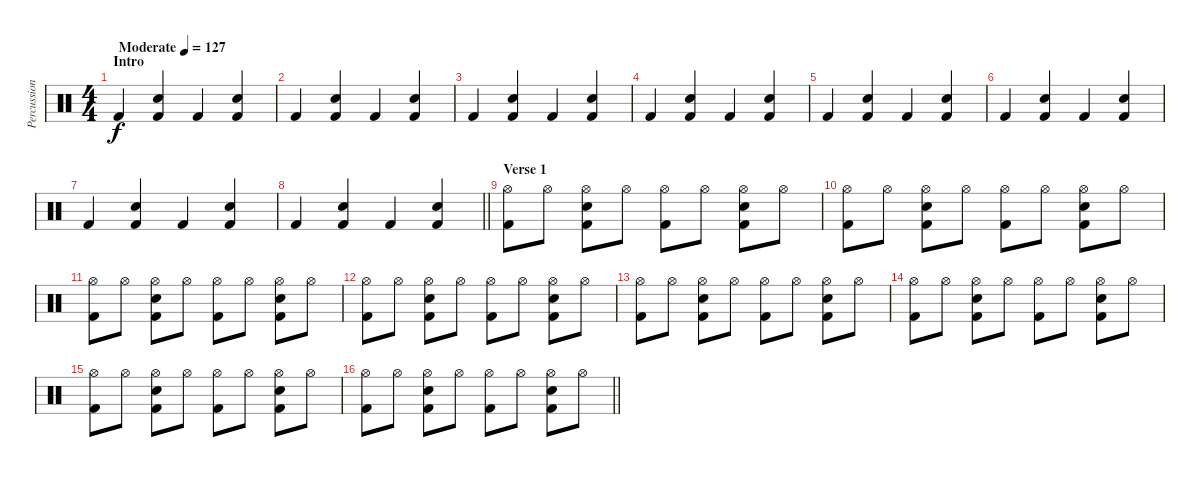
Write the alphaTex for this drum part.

\track ("Percussion" "Percussion") {instrument percussion}
\staff {score}
\articulation defaults
\ts (4 4)
\section ("" "Intro")
\tempo (127 "Moderate")
\clef neutral
\ks c "Kick (hit) 2".4{dy f volume 3}
("Electric Snare (hit)" "Kick (hit) 2").4 "Kick (hit) 2".4 ("Electric Snare (hit)" "Kick (hit) 2").4 |
"Kick (hit) 2".4 ("Electric Snare (hit)" "Kick (hit) 2").4 "Kick (hit) 2".4 ("Electric Snare (hit)" "Kick (hit) 2").4 |
"Kick (hit) 2".4 ("Electric Snare (hit)" "Kick (hit) 2").4 "Kick (hit) 2".4 ("Electric Snare (hit)" "Kick (hit) 2").4 |
"Kick (hit) 2".4 ("Electric Snare (hit)" "Kick (hit) 2").4 "Kick (hit) 2".4 ("Electric Snare (hit)" "Kick (hit) 2").4 |
"Kick (hit) 2".4 ("Electric Snare (hit)" "Kick (hit) 2").4 "Kick (hit) 2".4 ("Electric Snare (hit)" "Kick (hit) 2").4 |
"Kick (hit) 2".4 ("Electric Snare (hit)" "Kick (hit) 2").4 "Kick (hit) 2".4 ("Electric Snare (hit)" "Kick (hit) 2").4 |
"Kick (hit) 2".4 ("Electric Snare (hit)" "Kick (hit) 2").4 "Kick (hit) 2".4 ("Electric Snare (hit)" "Kick (hit) 2").4 |
\barLineRight lightlight "Kick (hit) 2".4
("Electric Snare (hit)" "Kick (hit) 2").4 "Kick (hit) 2".4 ("Electric Snare (hit)" "Kick (hit) 2").4 |
\section ("" "Verse 1")
("Hi-Hat (open)" "Kick (hit) 2").8 "Hi-Hat (open)".8 ("Hi-Hat (open)" "Electric Snare (hit)" "Kick (hit) 2").8 "Hi-Hat (open)".8 ("Hi-Hat (open)" "Kick (hit) 2").8 "Hi-Hat (open)".8 ("Hi-Hat (open)" "Electric Snare (hit)" "Kick (hit) 2").8 "Hi-Hat (open)".8 |
("Hi-Hat (open)" "Kick (hit) 2").8 "Hi-Hat (open)".8 ("Hi-Hat (open)" "Electric Snare (hit)" "Kick (hit) 2").8 "Hi-Hat (open)".8 ("Hi-Hat (open)" "Kick (hit) 2").8 "Hi-Hat (open)".8 ("Hi-Hat (open)" "Electric Snare (hit)" "Kick (hit) 2").8 "Hi-Hat (open)".8 |
("Hi-Hat (open)" "Kick (hit) 2").8 "Hi-Hat (open)".8 ("Hi-Hat (open)" "Electric Snare (hit)" "Kick (hit) 2").8 "Hi-Hat (open)".8 ("Hi-Hat (open)" "Kick (hit) 2").8 "Hi-Hat (open)".8 ("Hi-Hat (open)" "Electric Snare (hit)" "Kick (hit) 2").8 "Hi-Hat (open)".8 |
("Hi-Hat (open)" "Kick (hit) 2").8 "Hi-Hat (open)".8 ("Hi-Hat (open)" "Electric Snare (hit)" "Kick (hit) 2").8 "Hi-Hat (open)".8 ("Hi-Hat (open)" "Kick (hit) 2").8 "Hi-Hat (open)".8 ("Hi-Hat (open)" "Electric Snare (hit)" "Kick (hit) 2").8 "Hi-Hat (open)".8 |
("Hi-Hat (open)" "Kick (hit) 2").8 "Hi-Hat (open)".8 ("Hi-Hat (open)" "Electric Snare (hit)" "Kick (hit) 2").8 "Hi-Hat (open)".8 ("Hi-Hat (open)" "Kick (hit) 2").8 "Hi-Hat (open)".8 ("Hi-Hat (open)" "Electric Snare (hit)" "Kick (hit) 2").8 "Hi-Hat (open)".8 |
("Hi-Hat (open)" "Kick (hit) 2").8 "Hi-Hat (open)".8 ("Hi-Hat (open)" "Electric Snare (hit)" "Kick (hit) 2").8 "Hi-Hat (open)".8 ("Hi-Hat (open)" "Kick (hit) 2").8 "Hi-Hat (open)".8 ("Hi-Hat (open)" "Electric Snare (hit)" "Kick (hit) 2").8 "Hi-Hat (open)".8 |
("Hi-Hat (open)" "Kick (hit) 2").8 "Hi-Hat (open)".8 ("Hi-Hat (open)" "Electric Snare (hit)" "Kick (hit) 2").8 "Hi-Hat (open)".8 ("Hi-Hat (open)" "Kick (hit) 2").8 "Hi-Hat (open)".8 ("Hi-Hat (open)" "Electric Snare (hit)" "Kick (hit) 2").8 "Hi-Hat (open)".8 |
\barLineRight lightlight
("Hi-Hat (open)" "Kick (hit) 2").8 "Hi-Hat (open)".8 ("Hi-Hat (open)" "Electric Snare (hit)" "Kick (hit) 2").8 "Hi-Hat (open)".8 ("Hi-Hat (open)" "Kick (hit) 2").8 "Hi-Hat (open)".8 ("Hi-Hat (open)" "Electric Snare (hit)" "Kick (hit) 2").8 "Hi-Hat (open)".8
